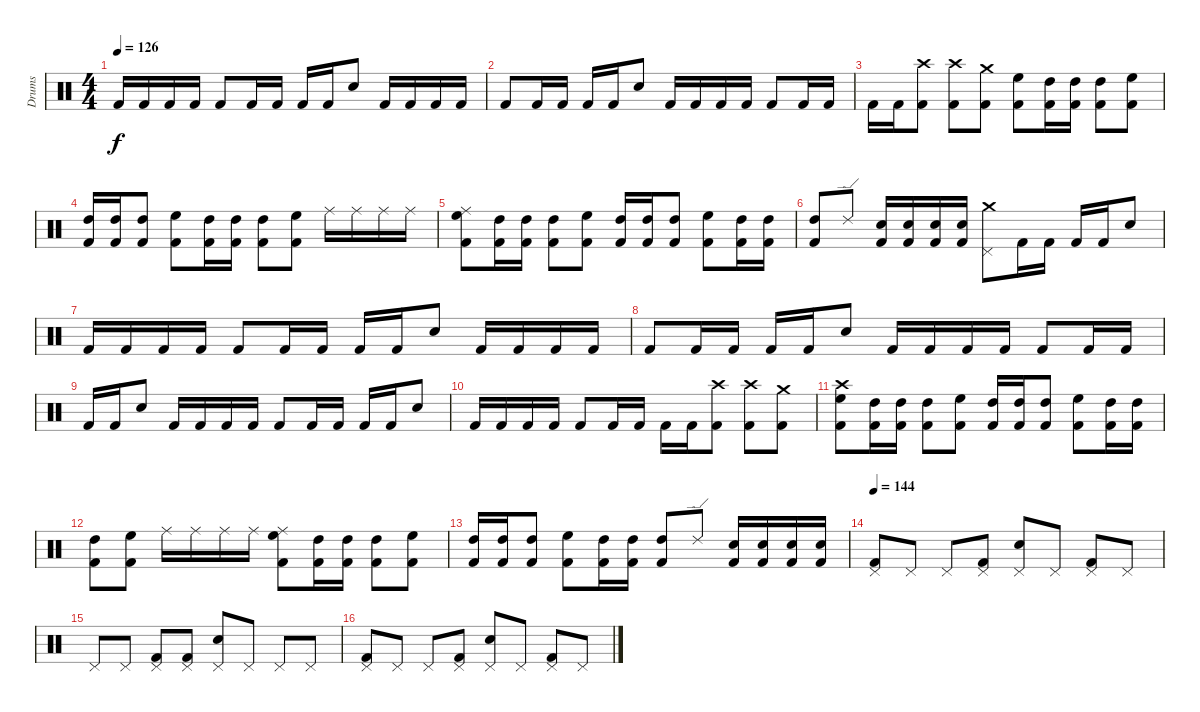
\track ("Drums" "Drums") {instrument percussion}
\staff {score}
\articulation defaults
\ts (4 4)
\tempo 126
\clef neutral
\ks c "Kick (hit) 2".16{dy f} "Kick (hit) 2".16 "Kick (hit) 2".16 "Kick (hit) 2".16 "Kick (hit) 2".8 "Kick (hit) 2".16 "Kick (hit) 2".16 "Kick (hit) 2".16 "Kick (hit) 2".16 "Electric Snare (hit)".8 "Kick (hit) 2".16 "Kick (hit) 2".16 "Kick (hit) 2".16 "Kick (hit) 2".16
|
"Kick (hit) 2".8 "Kick (hit) 2".16 "Kick (hit) 2".16 "Kick (hit) 2".16 "Kick (hit) 2".16 "Electric Snare (hit)".8 "Kick (hit) 2".16 "Kick (hit) 2".16 "Kick (hit) 2".16 "Kick (hit) 2".16 "Kick (hit) 2".8 "Kick (hit) 2".16 "Kick (hit) 2".16 |
"Kick (hit) 2".16 "Kick (hit) 2".16 ("Crash high (hit)" "Kick (hit) 2").8 ("Crash high (hit)" "Kick (hit) 2").8 ("Crash medium (hit)" "Kick (hit) 2").8 ("High Floor Tom (hit)" "Kick (hit) 2").8 ("High Tom (hit)" "Kick (hit) 2").16 ("High Tom (hit)" "Kick (hit) 2").16 ("High Tom (hit)" "Kick (hit) 2").8 ("High Floor Tom (hit)" "Kick (hit) 2").8 |
("High Tom (hit)" "Kick (hit) 2").16 ("High Tom (hit)" "Kick (hit) 2").16 ("High Tom (hit)" "Kick (hit) 2").8 ("High Floor Tom (hit)" "Kick (hit) 2").8 ("High Tom (hit)" "Kick (hit) 2").16 ("High Tom (hit)" "Kick (hit) 2").16 ("High Tom (hit)" "Kick (hit) 2").8 ("High Floor Tom (hit)" "Kick (hit) 2").8 "Ride (middle)".16 "Ride (middle)".16 "Ride (middle)".16 "Ride (middle)".16 |
("Ride (middle)" "High Floor Tom (hit)" "Kick (hit) 2").8 ("High Tom (hit)" "Kick (hit) 2").16 ("High Tom (hit)" "Kick (hit) 2").16 ("High Tom (hit)" "Kick (hit) 2").8 ("High Floor Tom (hit)" "Kick (hit) 2").8 ("High Tom (hit)" "Kick (hit) 2").16 ("High Tom (hit)" "Kick (hit) 2").16 ("High Tom (hit)" "Kick (hit) 2").8 ("High Floor Tom (hit)" "Kick (hit) 2").8 ("High Tom (hit)" "Kick (hit) 2").16 ("High Tom (hit)" "Kick (hit) 2").16 |
("High Tom (hit)" "Kick (hit) 2").8 "Ride (edge) 2".8 ("Electric Snare (hit)" "Kick (hit) 2").16 ("Electric Snare (hit)" "Kick (hit) 2").16 ("Electric Snare (hit)" "Kick (hit) 2").16 ("Electric Snare (hit)" "Kick (hit) 2").16 ("Crash medium (hit)" "Pedal Hi-Hat (hit)").8 "Kick (hit) 2".16 "Kick (hit) 2".16 "Kick (hit) 2".16 "Kick (hit) 2".16 "Electric Snare (hit)".8 |
"Kick (hit) 2".16 "Kick (hit) 2".16 "Kick (hit) 2".16 "Kick (hit) 2".16 "Kick (hit) 2".8 "Kick (hit) 2".16 "Kick (hit) 2".16 "Kick (hit) 2".16 "Kick (hit) 2".16 "Electric Snare (hit)".8 "Kick (hit) 2".16 "Kick (hit) 2".16 "Kick (hit) 2".16 "Kick (hit) 2".16 |
"Kick (hit) 2".8 "Kick (hit) 2".16 "Kick (hit) 2".16 "Kick (hit) 2".16 "Kick (hit) 2".16 "Electric Snare (hit)".8 "Kick (hit) 2".16 "Kick (hit) 2".16 "Kick (hit) 2".16 "Kick (hit) 2".16 "Kick (hit) 2".8 "Kick (hit) 2".16 "Kick (hit) 2".16 |
"Kick (hit) 2".16 "Kick (hit) 2".16 "Electric Snare (hit)".8 "Kick (hit) 2".16 "Kick (hit) 2".16 "Kick (hit) 2".16 "Kick (hit) 2".16 "Kick (hit) 2".8 "Kick (hit) 2".16 "Kick (hit) 2".16 "Kick (hit) 2".16 "Kick (hit) 2".16 "Electric Snare (hit)".8 |
"Kick (hit) 2".16 "Kick (hit) 2".16 "Kick (hit) 2".16 "Kick (hit) 2".16 "Kick (hit) 2".8 "Kick (hit) 2".16 "Kick (hit) 2".16 "Kick (hit) 2".16 "Kick (hit) 2".16 ("Crash high (hit)" "Kick (hit) 2").8 ("Crash high (hit)" "Kick (hit) 2").8 ("Crash medium (hit)" "Kick (hit) 2").8 |
("Crash high (hit)" "High Floor Tom (hit)" "Kick (hit) 2").8 ("High Tom (hit)" "Kick (hit) 2").16 ("High Tom (hit)" "Kick (hit) 2").16 ("High Tom (hit)" "Kick (hit) 2").8 ("High Floor Tom (hit)" "Kick (hit) 2").8 ("High Tom (hit)" "Kick (hit) 2").16 ("High Tom (hit)" "Kick (hit) 2").16 ("High Tom (hit)" "Kick (hit) 2").8 ("High Floor Tom (hit)" "Kick (hit) 2").8 ("High Tom (hit)" "Kick (hit) 2").16 ("High Tom (hit)" "Kick (hit) 2").16 |
("High Tom (hit)" "Kick (hit) 2").8 ("High Floor Tom (hit)" "Kick (hit) 2").8 "Ride (middle)".16 "Ride (middle)".16 "Ride (middle)".16 "Ride (middle)".16 ("Ride (middle)" "High Floor Tom (hit)" "Kick (hit) 2").8 ("High Tom (hit)" "Kick (hit) 2").16 ("High Tom (hit)" "Kick (hit) 2").16 ("High Tom (hit)" "Kick (hit) 2").8 ("High Floor Tom (hit)" "Kick (hit) 2").8 |
("High Tom (hit)" "Kick (hit) 2").16 ("High Tom (hit)" "Kick (hit) 2").16 ("High Tom (hit)" "Kick (hit) 2").8 ("High Floor Tom (hit)" "Kick (hit) 2").8 ("High Tom (hit)" "Kick (hit) 2").16 ("High Tom (hit)" "Kick (hit) 2").16 ("High Tom (hit)" "Kick (hit) 2").8 "Ride (edge) 2".8 ("Electric Snare (hit)" "Kick (hit) 2").16 ("Electric Snare (hit)" "Kick (hit) 2").16 ("Electric Snare (hit)" "Kick (hit) 2").16 ("Electric Snare (hit)" "Kick (hit) 2").16 |
\tempo 144
("Kick (hit) 2" "Pedal Hi-Hat (hit)").8 "Pedal Hi-Hat (hit)".8 "Pedal Hi-Hat (hit)".8 ("Kick (hit) 2" "Pedal Hi-Hat (hit)").8 ("Electric Snare (hit)" "Pedal Hi-Hat (hit)").8 "Pedal Hi-Hat (hit)".8 ("Kick (hit) 2" "Pedal Hi-Hat (hit)").8 "Pedal Hi-Hat (hit)".8 |
"Pedal Hi-Hat (hit)".8 "Pedal Hi-Hat (hit)".8 ("Kick (hit) 2" "Pedal Hi-Hat (hit)").8 ("Kick (hit) 2" "Pedal Hi-Hat (hit)").8 ("Electric Snare (hit)" "Pedal Hi-Hat (hit)").8 "Pedal Hi-Hat (hit)".8 "Pedal Hi-Hat (hit)".8 "Pedal Hi-Hat (hit)".8 |
("Kick (hit) 2" "Pedal Hi-Hat (hit)").8 "Pedal Hi-Hat (hit)".8 "Pedal Hi-Hat (hit)".8 ("Kick (hit) 2" "Pedal Hi-Hat (hit)").8 ("Electric Snare (hit)" "Pedal Hi-Hat (hit)").8 "Pedal Hi-Hat (hit)".8 ("Kick (hit) 2" "Pedal Hi-Hat (hit)").8 "Pedal Hi-Hat (hit)".8
